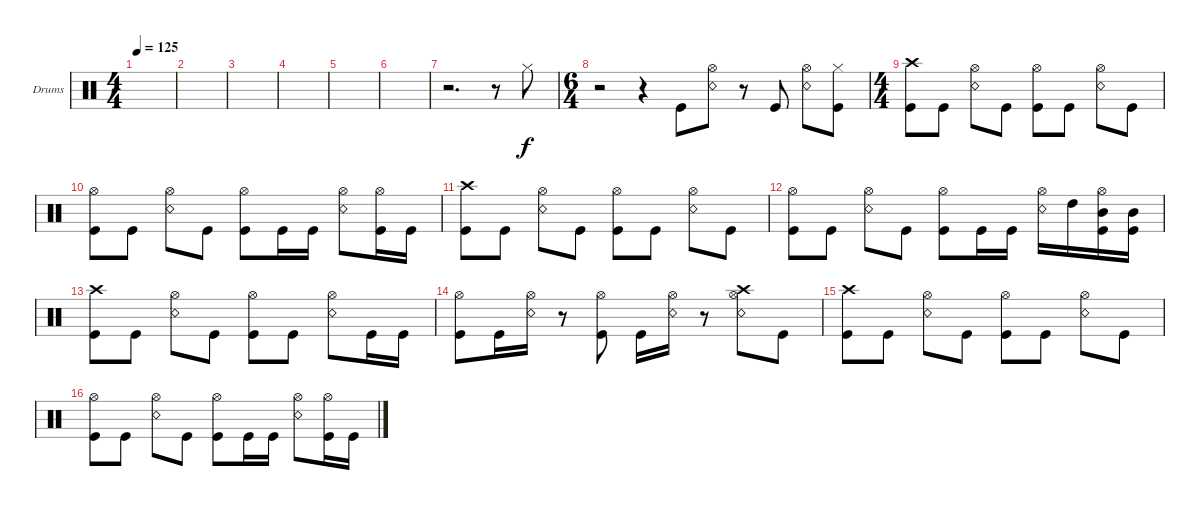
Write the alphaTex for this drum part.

\defaultSystemsLayout 4
\bracketExtendMode groupsimilarinstruments
\firstSystemTrackNameOrientation horizontal
\otherSystemsTrackNameOrientation horizontal
\track ("Drumkit" "Drums") {instrument percussion}
\staff {score}
\articulation defaults
\ts (4 4)
\tempo 125
\clef neutral
\ks c
|
|
|
|
|
|
r.2{d} r.8 "Hi-Hat (closed)".8 |
\ts (6 4)
r.2 r.4 "Kick (hit)".8 ("Snare (rim shot)" "Hi-Hat (open)").8 r.8 "Kick (hit)".8 ("Snare (rim shot)" "Hi-Hat (open)").8 ("Kick (hit)" "Hi-Hat (closed)").8 |
\ts (4 4)
("Crash high (hit)" "Kick (hit)").8{dy f} "Kick (hit)".8 ("Hi-Hat (open)" "Snare (rim shot)").8 "Kick (hit)".8 ("Hi-Hat (open)" "Kick (hit)").8 "Kick (hit)".8 ("Hi-Hat (open)" "Snare (rim shot)").8 "Kick (hit)".8 |
("Kick (hit)" "Hi-Hat (open)").8 "Kick (hit)".8 ("Hi-Hat (open)" "Snare (rim shot)").8 "Kick (hit)".8 ("Hi-Hat (open)" "Kick (hit)").8 "Kick (hit)".16 "Kick (hit)".16 ("Snare (rim shot)" "Hi-Hat (open)").8 ("Kick (hit)" "Hi-Hat (open)").16 "Kick (hit)".16 |
("Crash high (hit)" "Kick (hit)").8 "Kick (hit)".8 ("Hi-Hat (open)" "Snare (rim shot)").8 "Kick (hit)".8 ("Hi-Hat (open)" "Kick (hit)").8 "Kick (hit)".8 ("Hi-Hat (open)" "Snare (rim shot)").8 "Kick (hit)".8 |
("Kick (hit)" "Hi-Hat (open)").8 "Kick (hit)".8 ("Hi-Hat (open)" "Snare (rim shot)").8 "Kick (hit)".8 ("Hi-Hat (open)" "Kick (hit)").8 "Kick (hit)".16 "Kick (hit)".16 ("Snare (rim shot)" "Hi-Hat (open)").16 "High Tom (hit)".16 ("Kick (hit)" "Mid Tom (hit)" "Hi-Hat (open)").16 ("Kick (hit)" "Mid Tom (hit)").16 |
("Crash high (hit)" "Kick (hit)").8 "Kick (hit)".8 ("Hi-Hat (open)" "Snare (rim shot)").8 "Kick (hit)".8 ("Hi-Hat (open)" "Kick (hit)").8 "Kick (hit)".8 ("Hi-Hat (open)" "Snare (rim shot)").8 "Kick (hit)".16 "Kick (hit)".16 |
("Kick (hit)" "Hi-Hat (open)").8 "Kick (hit)".16 ("Hi-Hat (open)" "Snare (rim shot)").16 r.8 ("Hi-Hat (open)" "Kick (hit)").8 "Kick (hit)".16 ("Snare (rim shot)" "Hi-Hat (open)").16 r.8 ("Snare (rim shot)" "Hi-Hat (open)" "Crash high (hit)").8 "Kick (hit)".8 |
("Crash high (hit)" "Kick (hit)").8 "Kick (hit)".8 ("Hi-Hat (open)" "Snare (rim shot)").8 "Kick (hit)".8 ("Hi-Hat (open)" "Kick (hit)").8 "Kick (hit)".8 ("Hi-Hat (open)" "Snare (rim shot)").8 "Kick (hit)".8 |
("Kick (hit)" "Hi-Hat (open)").8 "Kick (hit)".8 ("Hi-Hat (open)" "Snare (rim shot)").8 "Kick (hit)".8 ("Hi-Hat (open)" "Kick (hit)").8 "Kick (hit)".16 "Kick (hit)".16 ("Snare (rim shot)" "Hi-Hat (open)").8 ("Kick (hit)" "Hi-Hat (open)").16 "Kick (hit)".16
